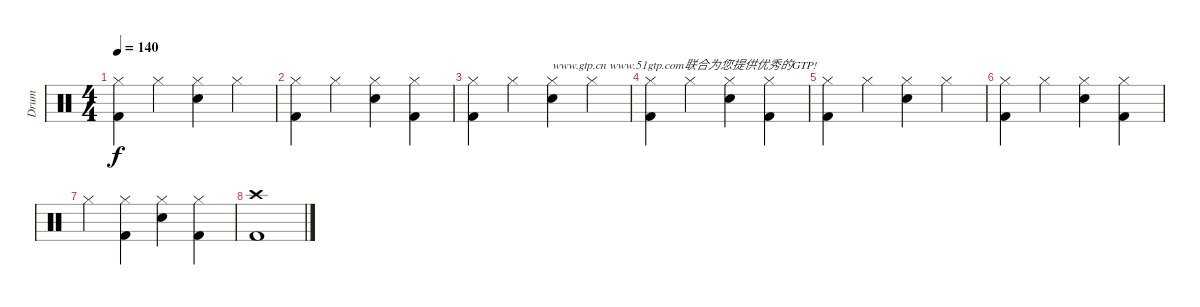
\track ("Drum" "Drum") {instrument percussion}
\staff {score}
\articulation defaults
\ts (4 4)
\tempo 140
\clef neutral
\ks c
("Hi-Hat (closed)" "Kick (hit) 2").4{dy f} "Hi-Hat (closed)".4 ("Hi-Hat (closed)" "Electric Snare (hit)").4 "Hi-Hat (closed)".4 |
("Hi-Hat (closed)" "Kick (hit) 2").4 "Hi-Hat (closed)".4 ("Hi-Hat (closed)" "Electric Snare (hit)").4 ("Hi-Hat (closed)" "Kick (hit) 2").4 |
("Hi-Hat (closed)" "Kick (hit) 2").4 "Hi-Hat (closed)".4 ("Hi-Hat (closed)" "Electric Snare (hit)").4{txt "www.gtp.cn www.51gtp.com联合为您提供优秀的GTP!"} "Hi-Hat (closed)".4 |
("Hi-Hat (closed)" "Kick (hit) 2").4 "Hi-Hat (closed)".4 ("Hi-Hat (closed)" "Electric Snare (hit)").4 ("Hi-Hat (closed)" "Kick (hit) 2").4 |
("Hi-Hat (closed)" "Kick (hit) 2").4 "Hi-Hat (closed)".4 ("Hi-Hat (closed)" "Electric Snare (hit)").4 "Hi-Hat (closed)".4 |
("Hi-Hat (closed)" "Kick (hit) 2").4 "Hi-Hat (closed)".4 ("Hi-Hat (closed)" "Electric Snare (hit)").4 ("Hi-Hat (closed)" "Kick (hit) 2").4 |
"Hi-Hat (closed)".4 ("Hi-Hat (closed)" "Kick (hit) 2").4 ("Hi-Hat (closed)" "Electric Snare (hit)").4 ("Hi-Hat (closed)" "Kick (hit) 2").4 |
("Crash high (hit)" "Kick (hit) 2").1
